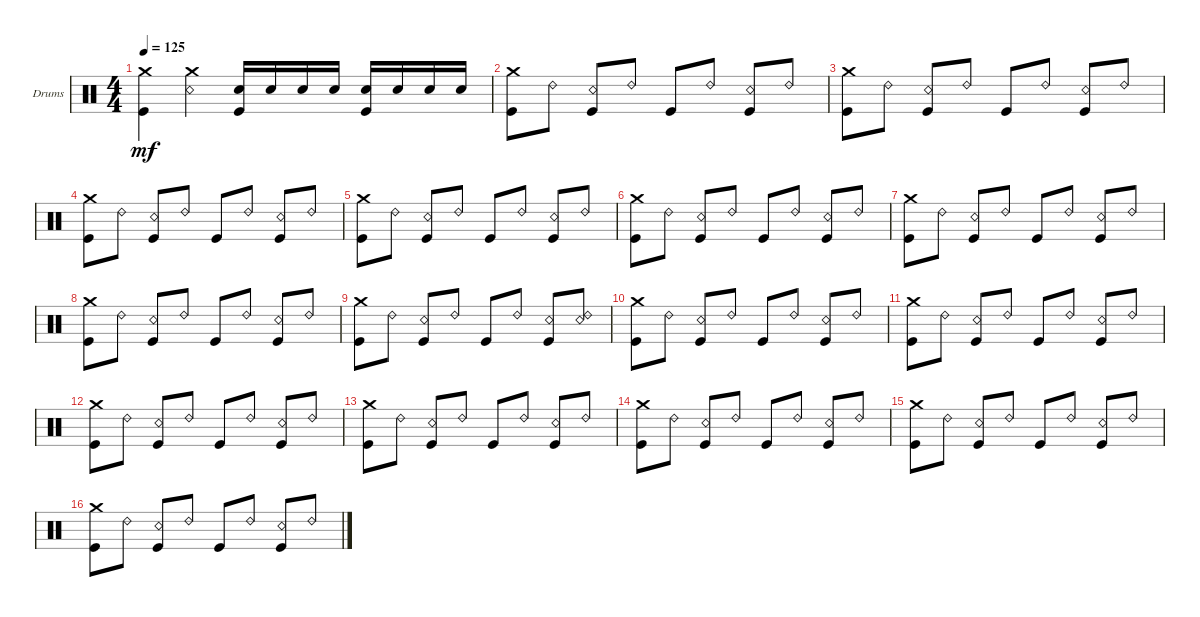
\defaultSystemsLayout 4
\bracketExtendMode groupsimilarinstruments
\firstSystemTrackNameOrientation horizontal
\otherSystemsTrackNameOrientation horizontal
\track ("Drumkit" "Drums") {instrument percussion}
\staff {score}
\articulation defaults
\ts (4 4)
\tempo 125
\clef neutral
\ks c
("Crash medium (hit)" "Kick (hit)").4{dy mf} ("Snare (rim shot)" "Crash medium (hit)").4 ("Snare (hit) 2" "Kick (hit)").16 "Snare (hit) 2".16 "Snare (hit) 2".16 "Snare (hit) 2".16 ("Snare (hit) 2" "Kick (hit)").16 "Snare (hit) 2".16 "Snare (hit) 2".16 "Snare (hit) 2".16 |
("Kick (hit)" "Crash medium (hit)").8 "Ride (bell) 2".8 ("Kick (hit)" "Snare (rim shot)").8 "Ride (bell) 2".8 "Kick (hit)".8 "Ride (bell) 2".8 ("Kick (hit)" "Snare (rim shot)").8 "Ride (bell) 2".8 |
("Kick (hit)" "Crash medium (hit)").8 "Ride (bell) 2".8 ("Kick (hit)" "Snare (rim shot)").8 "Ride (bell) 2".8 "Kick (hit)".8 "Ride (bell) 2".8 ("Kick (hit)" "Snare (rim shot)").8 "Ride (bell) 2".8 |
("Kick (hit)" "Crash medium (hit)").8 "Ride (bell) 2".8 ("Kick (hit)" "Snare (rim shot)").8 "Ride (bell) 2".8 "Kick (hit)".8 "Ride (bell) 2".8 ("Kick (hit)" "Snare (rim shot)").8 "Ride (bell) 2".8 |
("Kick (hit)" "Crash medium (hit)").8 "Ride (bell) 2".8 ("Kick (hit)" "Snare (rim shot)").8 "Ride (bell) 2".8 "Kick (hit)".8 "Ride (bell) 2".8 ("Kick (hit)" "Snare (rim shot)").8 "Ride (bell) 2".8 |
("Kick (hit)" "Crash medium (hit)").8 "Ride (bell) 2".8 ("Kick (hit)" "Snare (rim shot)").8 "Ride (bell) 2".8 "Kick (hit)".8 "Ride (bell) 2".8 ("Kick (hit)" "Snare (rim shot)").8 "Ride (bell) 2".8 |
("Kick (hit)" "Crash medium (hit)").8 "Ride (bell) 2".8 ("Kick (hit)" "Snare (rim shot)").8 "Ride (bell) 2".8 "Kick (hit)".8 "Ride (bell) 2".8 ("Kick (hit)" "Snare (rim shot)").8 "Ride (bell) 2".8 |
("Kick (hit)" "Crash medium (hit)").8 "Ride (bell) 2".8 ("Kick (hit)" "Snare (rim shot)").8 "Ride (bell) 2".8 "Kick (hit)".8 "Ride (bell) 2".8 ("Kick (hit)" "Snare (rim shot)").8 "Ride (bell) 2".8 |
("Kick (hit)" "Crash medium (hit)").8 "Ride (bell) 2".8 ("Kick (hit)" "Snare (rim shot)").8 "Ride (bell) 2".8 "Kick (hit)".8 "Ride (bell) 2".8 ("Kick (hit)" "Snare (rim shot)").8 ("Ride (bell) 2" "Snare (rim shot)").8 |
("Kick (hit)" "Crash medium (hit)").8 "Ride (bell) 2".8 ("Kick (hit)" "Snare (rim shot)").8 "Ride (bell) 2".8 "Kick (hit)".8 "Ride (bell) 2".8 ("Kick (hit)" "Snare (rim shot)").8 "Ride (bell) 2".8 |
("Kick (hit)" "Crash medium (hit)").8 "Ride (bell) 2".8 ("Kick (hit)" "Snare (rim shot)").8 "Ride (bell) 2".8 "Kick (hit)".8 "Ride (bell) 2".8 ("Kick (hit)" "Snare (rim shot)").8 "Ride (bell) 2".8 |
("Kick (hit)" "Crash medium (hit)").8 "Ride (bell) 2".8 ("Kick (hit)" "Snare (rim shot)").8 "Ride (bell) 2".8 "Kick (hit)".8 "Ride (bell) 2".8 ("Kick (hit)" "Snare (rim shot)").8 "Ride (bell) 2".8 |
("Kick (hit)" "Crash medium (hit)").8 "Ride (bell) 2".8 ("Kick (hit)" "Snare (rim shot)").8 "Ride (bell) 2".8 "Kick (hit)".8 "Ride (bell) 2".8 ("Kick (hit)" "Snare (rim shot)").8 "Ride (bell) 2".8 |
("Kick (hit)" "Crash medium (hit)").8 "Ride (bell) 2".8 ("Kick (hit)" "Snare (rim shot)").8 "Ride (bell) 2".8 "Kick (hit)".8 "Ride (bell) 2".8 ("Kick (hit)" "Snare (rim shot)").8 "Ride (bell) 2".8 |
("Kick (hit)" "Crash medium (hit)").8 "Ride (bell) 2".8 ("Kick (hit)" "Snare (rim shot)").8 "Ride (bell) 2".8 "Kick (hit)".8 "Ride (bell) 2".8 ("Kick (hit)" "Snare (rim shot)").8 "Ride (bell) 2".8 |
("Kick (hit)" "Crash medium (hit)").8 "Ride (bell) 2".8 ("Kick (hit)" "Snare (rim shot)").8 "Ride (bell) 2".8 "Kick (hit)".8 "Ride (bell) 2".8 ("Kick (hit)" "Snare (rim shot)").8 "Ride (bell) 2".8
